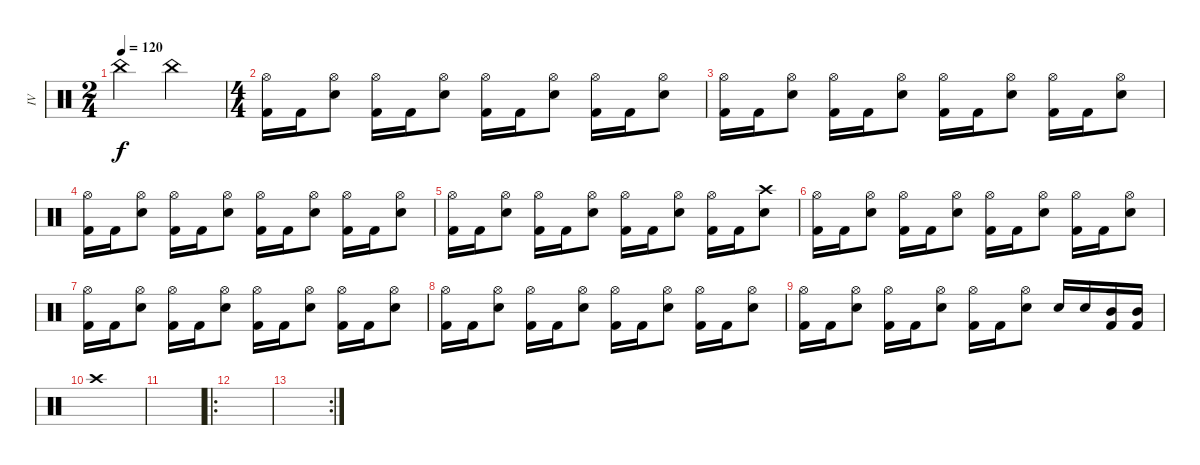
\track ("IV" "IV") {instrument percussion}
\staff {score}
\articulation defaults
\ts (2 4)
\tempo 120
\clef neutral
\ks c "China (hit)".4{dy f} "China (hit)".4
|
\ts (4 4)
("Hi-Hat (open)" "Kick (hit) 2").16 "Kick (hit) 2".16 ("Hi-Hat (open)" "Snare (hit) 2").8 ("Hi-Hat (open)" "Kick (hit) 2").16 "Kick (hit) 2".16 ("Hi-Hat (open)" "Snare (hit) 2").8 ("Hi-Hat (open)" "Kick (hit) 2").16 "Kick (hit) 2".16 ("Hi-Hat (open)" "Snare (hit) 2").8 ("Hi-Hat (open)" "Kick (hit) 2").16 "Kick (hit) 2".16 ("Hi-Hat (open)" "Snare (hit) 2").8 |
("Hi-Hat (open)" "Kick (hit) 2").16 "Kick (hit) 2".16 ("Hi-Hat (open)" "Snare (hit) 2").8 ("Hi-Hat (open)" "Kick (hit) 2").16 "Kick (hit) 2".16 ("Hi-Hat (open)" "Snare (hit) 2").8 ("Hi-Hat (open)" "Kick (hit) 2").16 "Kick (hit) 2".16 ("Hi-Hat (open)" "Snare (hit) 2").8 ("Hi-Hat (open)" "Kick (hit) 2").16 "Kick (hit) 2".16 ("Hi-Hat (open)" "Snare (hit) 2").8 |
("Hi-Hat (open)" "Kick (hit) 2").16 "Kick (hit) 2".16 ("Hi-Hat (open)" "Snare (hit) 2").8 ("Hi-Hat (open)" "Kick (hit) 2").16 "Kick (hit) 2".16 ("Hi-Hat (open)" "Snare (hit) 2").8 ("Hi-Hat (open)" "Kick (hit) 2").16 "Kick (hit) 2".16 ("Hi-Hat (open)" "Snare (hit) 2").8 ("Hi-Hat (open)" "Kick (hit) 2").16 "Kick (hit) 2".16 ("Hi-Hat (open)" "Snare (hit) 2").8 |
("Hi-Hat (open)" "Kick (hit) 2").16 "Kick (hit) 2".16 ("Hi-Hat (open)" "Snare (hit) 2").8 ("Hi-Hat (open)" "Kick (hit) 2").16 "Kick (hit) 2".16 ("Hi-Hat (open)" "Snare (hit) 2").8 ("Hi-Hat (open)" "Kick (hit) 2").16 "Kick (hit) 2".16 ("Hi-Hat (open)" "Snare (hit) 2").8 ("Hi-Hat (open)" "Kick (hit) 2").16 "Kick (hit) 2".16 ("Crash high (hit)" "Snare (hit) 2").8 |
("Hi-Hat (open)" "Kick (hit) 2").16 "Kick (hit) 2".16 ("Hi-Hat (open)" "Snare (hit) 2").8 ("Hi-Hat (open)" "Kick (hit) 2").16 "Kick (hit) 2".16 ("Hi-Hat (open)" "Snare (hit) 2").8 ("Hi-Hat (open)" "Kick (hit) 2").16 "Kick (hit) 2".16 ("Hi-Hat (open)" "Snare (hit) 2").8 ("Hi-Hat (open)" "Kick (hit) 2").16 "Kick (hit) 2".16 ("Hi-Hat (open)" "Snare (hit) 2").8 |
("Hi-Hat (open)" "Kick (hit) 2").16 "Kick (hit) 2".16 ("Hi-Hat (open)" "Snare (hit) 2").8 ("Hi-Hat (open)" "Kick (hit) 2").16 "Kick (hit) 2".16 ("Hi-Hat (open)" "Snare (hit) 2").8 ("Hi-Hat (open)" "Kick (hit) 2").16 "Kick (hit) 2".16 ("Hi-Hat (open)" "Snare (hit) 2").8 ("Hi-Hat (open)" "Kick (hit) 2").16 "Kick (hit) 2".16 ("Hi-Hat (open)" "Snare (hit) 2").8 |
("Hi-Hat (open)" "Kick (hit) 2").16 "Kick (hit) 2".16 ("Hi-Hat (open)" "Snare (hit) 2").8 ("Hi-Hat (open)" "Kick (hit) 2").16 "Kick (hit) 2".16 ("Hi-Hat (open)" "Snare (hit) 2").8 ("Hi-Hat (open)" "Kick (hit) 2").16 "Kick (hit) 2".16 ("Hi-Hat (open)" "Snare (hit) 2").8 ("Hi-Hat (open)" "Kick (hit) 2").16 "Kick (hit) 2".16 ("Hi-Hat (open)" "Snare (hit) 2").8 |
("Hi-Hat (open)" "Kick (hit) 2").16 "Kick (hit) 2".16 ("Hi-Hat (open)" "Snare (hit) 2").8 ("Hi-Hat (open)" "Kick (hit) 2").16 "Kick (hit) 2".16 ("Hi-Hat (open)" "Snare (hit) 2").8 ("Hi-Hat (open)" "Kick (hit) 2").16 "Kick (hit) 2".16 ("Hi-Hat (open)" "Snare (hit) 2").8 "Snare (hit) 2".16 "Snare (hit) 2".16 ("Mid Tom (hit)" "Kick (hit) 2").16 ("Mid Tom (hit)" "Kick (hit) 2").16 |
"Crash high (hit)".1 |
|
\ro
|
\rc 2
